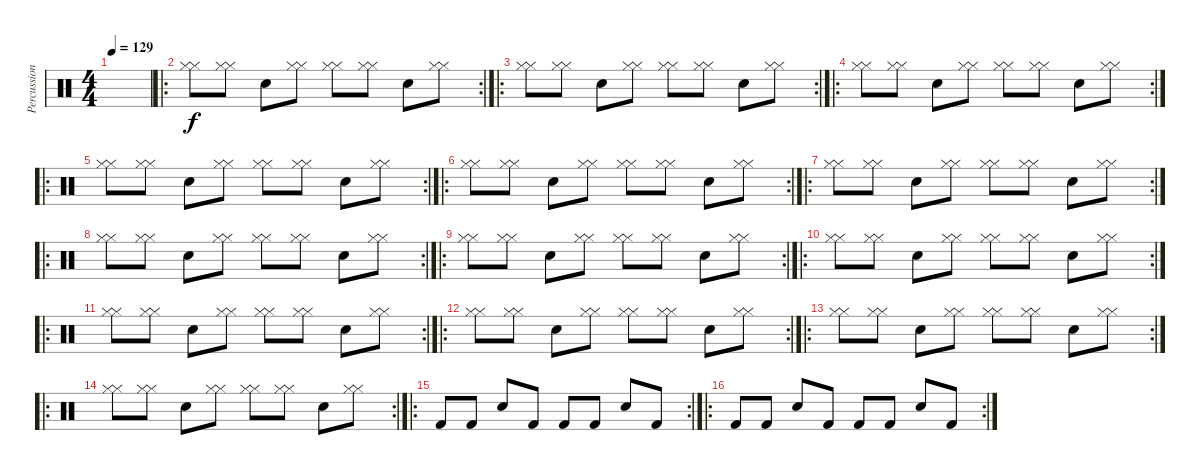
\track ("Percussion" "Percussion") {instrument percussion}
\staff {score}
\articulation defaults
\ts (4 4)
\tempo 129
\clef neutral
\ks c
|
\ro
\rc 2
("Hi-Hat (closed)" "Hi-Hat (closed)").8 ("Hi-Hat (closed)" "Hi-Hat (closed)").8 "Snare (hit) 2".8 ("Hi-Hat (closed)" "Hi-Hat (closed)").8 ("Hi-Hat (closed)" "Hi-Hat (closed)").8 ("Hi-Hat (closed)" "Hi-Hat (closed)").8 "Snare (hit) 2".8 ("Hi-Hat (closed)" "Hi-Hat (closed)").8 |
\ro
\rc 2
("Hi-Hat (closed)" "Hi-Hat (closed)").8 ("Hi-Hat (closed)" "Hi-Hat (closed)").8 "Snare (hit) 2".8 ("Hi-Hat (closed)" "Hi-Hat (closed)").8 ("Hi-Hat (closed)" "Hi-Hat (closed)").8 ("Hi-Hat (closed)" "Hi-Hat (closed)").8 "Snare (hit) 2".8 ("Hi-Hat (closed)" "Hi-Hat (closed)").8 |
\ro
\rc 2
("Hi-Hat (closed)" "Hi-Hat (closed)").8 ("Hi-Hat (closed)" "Hi-Hat (closed)").8 "Snare (hit) 2".8 ("Hi-Hat (closed)" "Hi-Hat (closed)").8 ("Hi-Hat (closed)" "Hi-Hat (closed)").8 ("Hi-Hat (closed)" "Hi-Hat (closed)").8 "Snare (hit) 2".8 ("Hi-Hat (closed)" "Hi-Hat (closed)").8 |
\ro
\rc 2
("Hi-Hat (closed)" "Hi-Hat (closed)").8 ("Hi-Hat (closed)" "Hi-Hat (closed)").8 "Snare (hit) 2".8 ("Hi-Hat (closed)" "Hi-Hat (closed)").8 ("Hi-Hat (closed)" "Hi-Hat (closed)").8 ("Hi-Hat (closed)" "Hi-Hat (closed)").8 "Snare (hit) 2".8 ("Hi-Hat (closed)" "Hi-Hat (closed)").8 |
\ro
\rc 2
("Hi-Hat (closed)" "Hi-Hat (closed)").8 ("Hi-Hat (closed)" "Hi-Hat (closed)").8 "Snare (hit) 2".8 ("Hi-Hat (closed)" "Hi-Hat (closed)").8 ("Hi-Hat (closed)" "Hi-Hat (closed)").8 ("Hi-Hat (closed)" "Hi-Hat (closed)").8 "Snare (hit) 2".8 ("Hi-Hat (closed)" "Hi-Hat (closed)").8 |
\ro
\rc 2
("Hi-Hat (closed)" "Hi-Hat (closed)").8 ("Hi-Hat (closed)" "Hi-Hat (closed)").8 "Snare (hit) 2".8 ("Hi-Hat (closed)" "Hi-Hat (closed)").8 ("Hi-Hat (closed)" "Hi-Hat (closed)").8 ("Hi-Hat (closed)" "Hi-Hat (closed)").8 "Snare (hit) 2".8 ("Hi-Hat (closed)" "Hi-Hat (closed)").8 |
\ro
\rc 2
("Hi-Hat (closed)" "Hi-Hat (closed)").8 ("Hi-Hat (closed)" "Hi-Hat (closed)").8 "Snare (hit) 2".8 ("Hi-Hat (closed)" "Hi-Hat (closed)").8 ("Hi-Hat (closed)" "Hi-Hat (closed)").8 ("Hi-Hat (closed)" "Hi-Hat (closed)").8 "Snare (hit) 2".8 ("Hi-Hat (closed)" "Hi-Hat (closed)").8 |
\ro
\rc 2
("Hi-Hat (closed)" "Hi-Hat (closed)").8 ("Hi-Hat (closed)" "Hi-Hat (closed)").8 "Snare (hit) 2".8 ("Hi-Hat (closed)" "Hi-Hat (closed)").8 ("Hi-Hat (closed)" "Hi-Hat (closed)").8 ("Hi-Hat (closed)" "Hi-Hat (closed)").8 "Snare (hit) 2".8 ("Hi-Hat (closed)" "Hi-Hat (closed)").8 |
\ro
\rc 2
("Hi-Hat (closed)" "Hi-Hat (closed)").8 ("Hi-Hat (closed)" "Hi-Hat (closed)").8 "Snare (hit) 2".8 ("Hi-Hat (closed)" "Hi-Hat (closed)").8 ("Hi-Hat (closed)" "Hi-Hat (closed)").8 ("Hi-Hat (closed)" "Hi-Hat (closed)").8 "Snare (hit) 2".8 ("Hi-Hat (closed)" "Hi-Hat (closed)").8 |
\ro
\rc 2
("Hi-Hat (closed)" "Hi-Hat (closed)").8 ("Hi-Hat (closed)" "Hi-Hat (closed)").8 "Snare (hit) 2".8 ("Hi-Hat (closed)" "Hi-Hat (closed)").8 ("Hi-Hat (closed)" "Hi-Hat (closed)").8 ("Hi-Hat (closed)" "Hi-Hat (closed)").8 "Snare (hit) 2".8 ("Hi-Hat (closed)" "Hi-Hat (closed)").8 |
\ro
\rc 2
("Hi-Hat (closed)" "Hi-Hat (closed)").8 ("Hi-Hat (closed)" "Hi-Hat (closed)").8 "Snare (hit) 2".8 ("Hi-Hat (closed)" "Hi-Hat (closed)").8 ("Hi-Hat (closed)" "Hi-Hat (closed)").8 ("Hi-Hat (closed)" "Hi-Hat (closed)").8 "Snare (hit) 2".8 ("Hi-Hat (closed)" "Hi-Hat (closed)").8 |
\ro
\rc 2
("Hi-Hat (closed)" "Hi-Hat (closed)").8 ("Hi-Hat (closed)" "Hi-Hat (closed)").8 "Snare (hit) 2".8 ("Hi-Hat (closed)" "Hi-Hat (closed)").8 ("Hi-Hat (closed)" "Hi-Hat (closed)").8 ("Hi-Hat (closed)" "Hi-Hat (closed)").8 "Snare (hit) 2".8 ("Hi-Hat (closed)" "Hi-Hat (closed)").8 |
\ro
\rc 2
("Hi-Hat (closed)" "Hi-Hat (closed)").8 ("Hi-Hat (closed)" "Hi-Hat (closed)").8 "Snare (hit) 2".8 ("Hi-Hat (closed)" "Hi-Hat (closed)").8 ("Hi-Hat (closed)" "Hi-Hat (closed)").8 ("Hi-Hat (closed)" "Hi-Hat (closed)").8 "Snare (hit) 2".8 ("Hi-Hat (closed)" "Hi-Hat (closed)").8 |
\ro
\rc 2 "Kick (hit) 2".8 "Kick (hit) 2".8 "Snare (hit) 2".8 "Kick (hit) 2".8 "Kick (hit) 2".8 "Kick (hit) 2".8 "Snare (hit) 2".8 "Kick (hit) 2".8
|
\ro
\rc 2 "Kick (hit) 2".8 "Kick (hit) 2".8 "Snare (hit) 2".8 "Kick (hit) 2".8 "Kick (hit) 2".8 "Kick (hit) 2".8 "Snare (hit) 2".8 "Kick (hit) 2".8
